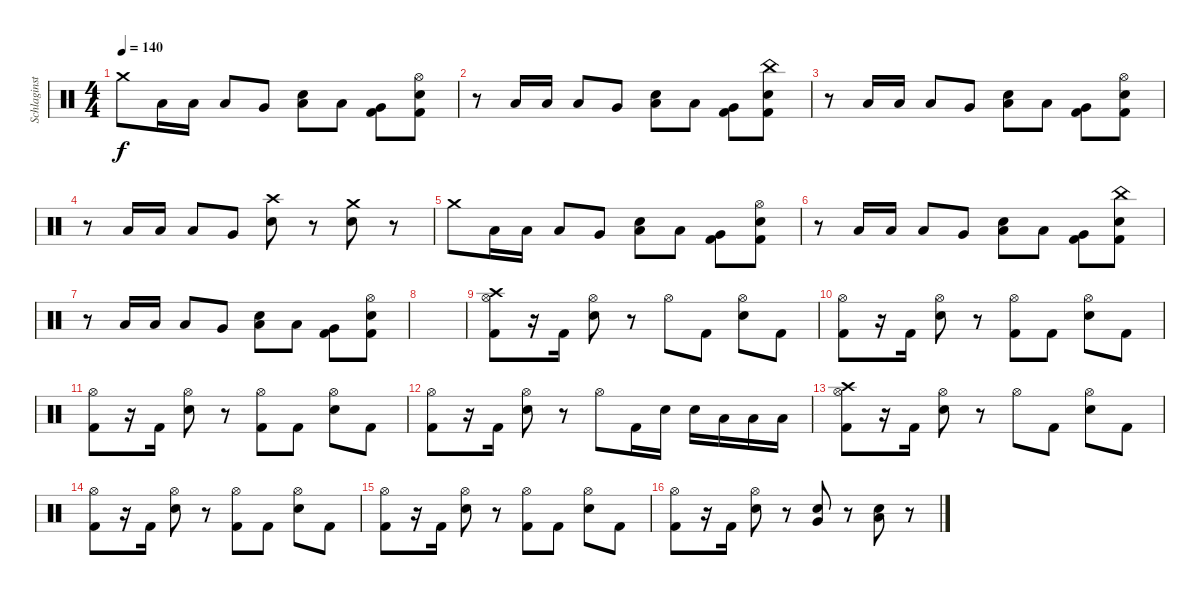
\track ("Schlaginstrumente - Auswahl" "Schlaginst") {instrument percussion}
\staff {score}
\articulation defaults
\ts (4 4)
\tempo 140
\clef neutral
\ks c "Crash medium (hit)".8{dy f} "Low Tom (hit)".16 "Low Tom (hit)".16 "Low Tom (hit)".8 "Very Low Tom (hit)".8
("Low Tom (hit)" "Snare (hit) 2").8 "Low Floor Tom (hit)".8 ("Very Low Tom (hit)" "Kick (hit) 2").8 ("Hi-Hat (open)" "Snare (hit) 2" "Kick (hit) 2").8 |
r.8 "Low Tom (hit)".16 "Low Tom (hit)".16 "Low Tom (hit)".8 "Very Low Tom (hit)".8 ("Low Tom (hit)" "Snare (hit) 2").8 "Low Floor Tom (hit)".8 ("Very Low Tom (hit)" "Kick (hit) 2").8 ("China (hit)" "Snare (hit) 2" "Kick (hit) 2").8 |
r.8 "Low Tom (hit)".16 "Low Tom (hit)".16 "Low Tom (hit)".8 "Very Low Tom (hit)".8 ("Low Tom (hit)" "Snare (hit) 2").8 "Low Floor Tom (hit)".8 ("Very Low Tom (hit)" "Kick (hit) 2").8 ("Hi-Hat (open)" "Snare (hit) 2" "Kick (hit) 2").8 |
r.8 "Low Tom (hit)".16 "Low Tom (hit)".16 "Low Tom (hit)".8 "Very Low Tom (hit)".8 ("Crash high (hit)" "Snare (hit) 2").8 r.8 ("Crash medium (hit)" "Snare (hit) 2").8 r.8 |
"Crash medium (hit)".8 "Low Tom (hit)".16 "Low Tom (hit)".16 "Low Tom (hit)".8 "Very Low Tom (hit)".8 ("Low Tom (hit)" "Snare (hit) 2").8 "Low Floor Tom (hit)".8 ("Very Low Tom (hit)" "Kick (hit) 2").8 ("Hi-Hat (open)" "Snare (hit) 2" "Kick (hit) 2").8 |
r.8 "Low Tom (hit)".16 "Low Tom (hit)".16 "Low Tom (hit)".8 "Very Low Tom (hit)".8 ("Low Tom (hit)" "Snare (hit) 2").8 "Low Floor Tom (hit)".8 ("Very Low Tom (hit)" "Kick (hit) 2").8 ("China (hit)" "Snare (hit) 2" "Kick (hit) 2").8 |
r.8 "Low Tom (hit)".16 "Low Tom (hit)".16 "Low Tom (hit)".8 "Very Low Tom (hit)".8 ("Low Tom (hit)" "Snare (hit) 2").8 "Low Floor Tom (hit)".8 ("Very Low Tom (hit)" "Kick (hit) 2").8 ("Hi-Hat (open)" "Snare (hit) 2" "Kick (hit) 2").8 |
|
("Crash high (hit)" "Hi-Hat (open)" "Kick (hit) 2").8 r.16 "Kick (hit) 2".16 ("Hi-Hat (open)" "Snare (hit) 2").8 r.8 "Hi-Hat (open)".8 "Kick (hit) 2".8 ("Hi-Hat (open)" "Snare (hit) 2").8 "Kick (hit) 2".8 |
("Hi-Hat (open)" "Kick (hit) 2").8 r.16 "Kick (hit) 2".16 ("Hi-Hat (open)" "Snare (hit) 2").8 r.8 ("Hi-Hat (open)" "Kick (hit) 2").8 "Kick (hit) 2".8 ("Hi-Hat (open)" "Snare (hit) 2").8 "Kick (hit) 2".8 |
("Hi-Hat (open)" "Kick (hit) 2").8 r.16 "Kick (hit) 2".16 ("Hi-Hat (open)" "Snare (hit) 2").8 r.8 ("Hi-Hat (open)" "Kick (hit) 2").8 "Kick (hit) 2".8 ("Hi-Hat (open)" "Snare (hit) 2").8 "Kick (hit) 2".8 |
("Hi-Hat (open)" "Kick (hit) 2").8 r.16 "Kick (hit) 2".16 ("Hi-Hat (open)" "Snare (hit) 2").8 r.8 "Hi-Hat (open)".8 "Kick (hit) 2".16 "Snare (hit) 2".16 "Snare (hit) 2".16 "Low Floor Tom (hit)".16 "Low Floor Tom (hit)".16 "Low Floor Tom (hit)".16 |
("Crash high (hit)" "Hi-Hat (open)" "Kick (hit) 2").8 r.16 "Kick (hit) 2".16 ("Hi-Hat (open)" "Snare (hit) 2").8 r.8 "Hi-Hat (open)".8 "Kick (hit) 2".8 ("Hi-Hat (open)" "Snare (hit) 2").8 "Kick (hit) 2".8 |
("Hi-Hat (open)" "Kick (hit) 2").8 r.16 "Kick (hit) 2".16 ("Hi-Hat (open)" "Snare (hit) 2").8 r.8 ("Hi-Hat (open)" "Kick (hit) 2").8 "Kick (hit) 2".8 ("Hi-Hat (open)" "Snare (hit) 2").8 "Kick (hit) 2".8 |
("Hi-Hat (open)" "Kick (hit) 2").8 r.16 "Kick (hit) 2".16 ("Hi-Hat (open)" "Snare (hit) 2").8 r.8 ("Hi-Hat (open)" "Kick (hit) 2").8 "Kick (hit) 2".8 ("Hi-Hat (open)" "Snare (hit) 2").8 "Kick (hit) 2".8 |
("Hi-Hat (open)" "Kick (hit) 2").8 r.16 "Kick (hit) 2".16 ("Hi-Hat (open)" "Snare (hit) 2").8 r.8 ("Very Low Tom (hit)" "Snare (hit) 2").8 r.8 ("Low Floor Tom (hit)" "Snare (hit) 2").8 r.8
